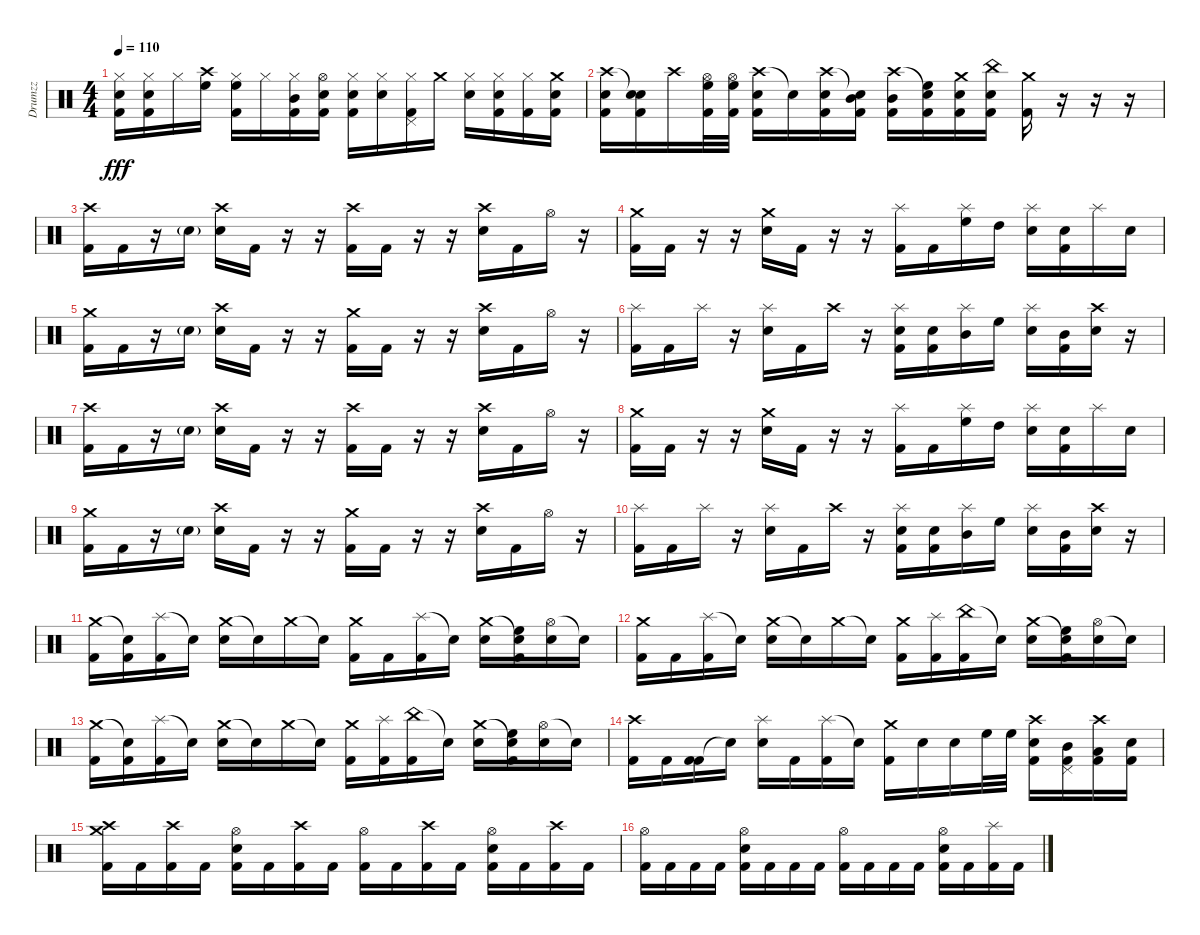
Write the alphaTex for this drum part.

\track ("Drumzz" "Drumzz") {instrument percussion}
\staff {score}
\articulation defaults
\ts (4 4)
\tempo 110
\clef neutral
\ks c
("Hi-Hat (closed)" "Snare (hit) 2" "Kick (hit) 2").16{dy fff} ("Hi-Hat (closed)" "Snare (hit) 2" "Kick (hit) 2").16 "Hi-Hat (closed)".16 ("Crash high (hit)" "High Floor Tom (hit)").16 ("Hi-Hat (closed)" "High Floor Tom (hit)" "Kick (hit) 2").16 "Hi-Hat (closed)".16 ("Hi-Hat (closed)" "Mid Tom (hit)" "Kick (hit) 2").16 ("Hi-Hat (open)" "Snare (hit) 2" "Kick (hit) 2").16 ("Hi-Hat (closed)" "Snare (hit) 2" "Kick (hit) 2").16 ("Hi-Hat (closed)" "Snare (hit) 2").16 ("Hi-Hat (closed)" "Pedal Hi-Hat (hit)" "Kick (hit) 2").16 "Crash medium (hit)".16 ("Hi-Hat (closed)" "Snare (hit) 2").16 ("Hi-Hat (closed)" "Snare (hit) 2" "Kick (hit) 2").16 ("Hi-Hat (closed)" "Kick (hit) 2").16 ("Crash medium (hit)" "Snare (hit) 2" "Kick (hit) 2").16 |
("Crash high (hit)" "Snare (hit) 2" "Kick (hit) 2").16 ("Snare (hit)"{t} "Snare (hit) 2" "Kick (hit) 2").16 "Crash high (hit)".16 ("Hi-Hat (open)" "High Floor Tom (hit)" "Kick (hit) 2").32 ("Hi-Hat (open)" "High Floor Tom (hit)" "Kick (hit) 2").32 ("Crash high (hit)" "Snare (hit) 2" "Kick (hit) 2").16 "Snare (hit)"{t}.16 ("Crash high (hit)" "Snare (hit) 2" "Kick (hit) 2").16 ("Snare (hit)"{t} "Mid Tom (hit)" "Kick (hit) 2").16 ("Crash high (hit)" "Mid Tom (hit)" "Kick (hit) 2").16 ("Snare (hit)"{t} "High Floor Tom (hit)" "Kick (hit) 2").16 ("Crash medium (hit)" "Snare (hit) 2" "Kick (hit) 2").16 ("China (hit)" "Snare (hit) 2" "Kick (hit) 2").16 ("Crash medium (hit)" "Kick (hit) 2").16 r.16 r.16 r.16 |
("Crash high (hit)" "Kick (hit) 2").16{volume 12} "Kick (hit) 2".16 r.16 "Snare (hit) 2"{g}.16 ("Crash high (hit)" "Snare (hit) 2").16 "Kick (hit) 2".16 r.16 r.16 ("Crash high (hit)" "Kick (hit) 2").16 "Kick (hit) 2".16 r.16 r.16 ("Crash high (hit)" "Snare (hit) 2").16 "Kick (hit) 2".16 "Hi-Hat (open)".16 r.16 |
("Crash medium (hit)" "Kick (hit) 2").16 "Kick (hit) 2".16 r.16 r.16 ("Crash medium (hit)" "Snare (hit) 2").16 "Kick (hit) 2".16 r.16 r.16 ("Splash (hit)" "Kick (hit) 2").16 "Kick (hit) 2".16 ("Splash (hit)" "High Floor Tom (hit)").16 "High Tom (hit)".16 ("Splash (hit)" "Snare (hit) 2").16 ("Snare (hit) 2" "Kick (hit) 2").16 "Splash (hit)".16 "Snare (hit) 2".16 |
("Crash medium (hit)" "Kick (hit) 2").16 "Kick (hit) 2".16 r.16 "Snare (hit) 2"{g}.16 ("Crash high (hit)" "Snare (hit) 2").16 "Kick (hit) 2".16 r.16 r.16 ("Crash medium (hit)" "Kick (hit) 2").16 "Kick (hit) 2".16 r.16 r.16 ("Crash high (hit)" "Snare (hit) 2").16 "Kick (hit) 2".16 "Hi-Hat (open)".16 r.16 |
("Splash (hit)" "Kick (hit) 2").16 "Kick (hit) 2".16 "Splash (hit)".16 r.16 ("Splash (hit)" "Snare (hit) 2").16 "Kick (hit) 2".16 "Crash high (hit)".16 r.16 ("Splash (hit)" "Snare (hit) 2" "Kick (hit) 2").16 ("Snare (hit) 2" "Kick (hit) 2").16 ("Splash (hit)" "Mid Tom (hit)").16 "High Floor Tom (hit)".16 ("Splash (hit)" "Snare (hit) 2").16 ("Mid Tom (hit)" "Kick (hit) 2").16 ("Crash high (hit)" "Snare (hit) 2").16 r.16 |
("Crash high (hit)" "Kick (hit) 2").16 "Kick (hit) 2".16 r.16 "Snare (hit) 2"{g}.16 ("Crash high (hit)" "Snare (hit) 2").16 "Kick (hit) 2".16 r.16 r.16 ("Crash high (hit)" "Kick (hit) 2").16 "Kick (hit) 2".16 r.16 r.16 ("Crash high (hit)" "Snare (hit) 2").16 "Kick (hit) 2".16 "Hi-Hat (open)".16 r.16 |
("Crash medium (hit)" "Kick (hit) 2").16 "Kick (hit) 2".16 r.16 r.16 ("Crash medium (hit)" "Snare (hit) 2").16 "Kick (hit) 2".16 r.16 r.16 ("Splash (hit)" "Kick (hit) 2").16 "Kick (hit) 2".16 ("Splash (hit)" "High Floor Tom (hit)").16 "High Tom (hit)".16 ("Splash (hit)" "Snare (hit) 2").16 ("Snare (hit) 2" "Kick (hit) 2").16 "Splash (hit)".16 "Snare (hit) 2".16 |
("Crash medium (hit)" "Kick (hit) 2").16 "Kick (hit) 2".16 r.16 "Snare (hit) 2"{g}.16 ("Crash high (hit)" "Snare (hit) 2").16 "Kick (hit) 2".16 r.16 r.16 ("Crash medium (hit)" "Kick (hit) 2").16 "Kick (hit) 2".16 r.16 r.16 ("Crash high (hit)" "Snare (hit) 2").16 "Kick (hit) 2".16 "Hi-Hat (open)".16 r.16 |
("Splash (hit)" "Kick (hit) 2").16 "Kick (hit) 2".16 "Splash (hit)".16 r.16 ("Splash (hit)" "Snare (hit) 2").16 "Kick (hit) 2".16 "Crash high (hit)".16 r.16 ("Splash (hit)" "Snare (hit) 2" "Kick (hit) 2").16 ("Snare (hit) 2" "Kick (hit) 2").16 ("Splash (hit)" "Mid Tom (hit)").16 "High Floor Tom (hit)".16 ("Splash (hit)" "Snare (hit) 2").16 ("Mid Tom (hit)" "Kick (hit) 2").16 ("Crash high (hit)" "Snare (hit) 2").16 r.16 |
("Crash medium (hit)" "Kick (hit) 2").16 ("Snare (hit)"{t} "Kick (hit) 2").16 ("Splash (hit)" "Kick (hit) 2").16 "Snare (hit)"{t}.16 ("Crash medium (hit)" "Snare (hit) 2").16 "Snare (hit)"{t}.16 "Crash medium (hit)".16 "Snare (hit)"{t}.16 ("Crash medium (hit)" "Kick (hit) 2").16 "Kick (hit) 2".16 ("Splash (hit)" "Kick (hit) 2").16 "Snare (hit)"{t}.16 ("Crash medium (hit)" "Snare (hit) 2").16 ("Snare (hit)"{t} "High Floor Tom (hit)" "Kick (hit) 2").16 ("Hi-Hat (open)" "Snare (hit) 2").16 "Snare (hit)"{t}.16 |
("Crash medium (hit)" "Kick (hit) 2").16 "Kick (hit) 2".16 ("Splash (hit)" "Kick (hit) 2").16 "Snare (hit)"{t}.16 ("Crash medium (hit)" "Snare (hit) 2").16 "Snare (hit)"{t}.16 "Crash medium (hit)".16 "Snare (hit)"{t}.16 ("Crash medium (hit)" "Kick (hit) 2").16 ("Splash (hit)" "Kick (hit) 2").16 ("China (hit)" "Kick (hit) 2").16 "Snare (hit)"{t}.16 ("Crash medium (hit)" "Snare (hit) 2").16 ("Snare (hit)"{t} "High Floor Tom (hit)" "Kick (hit) 2").16 ("Hi-Hat (open)" "Snare (hit) 2").16 "Snare (hit)"{t}.16 |
("Crash medium (hit)" "Kick (hit) 2").16 ("Snare (hit)"{t} "Kick (hit) 2").16 ("Splash (hit)" "Kick (hit) 2").16 "Snare (hit)"{t}.16 ("Crash medium (hit)" "Snare (hit) 2").16 "Snare (hit)"{t}.16 "Crash medium (hit)".16 "Snare (hit)"{t}.16 ("Crash medium (hit)" "Kick (hit) 2").16 ("Splash (hit)" "Kick (hit) 2").16 ("China (hit)" "Kick (hit) 2").16 "Snare (hit)"{t}.16 ("Crash medium (hit)" "Snare (hit) 2").16 ("Snare (hit)"{t} "High Floor Tom (hit)" "Kick (hit) 2").16 ("Hi-Hat (open)" "Snare (hit) 2").16 "Snare (hit)"{t}.16 |
("Crash high (hit)" "Kick (hit) 2").16 "Kick (hit) 2".16 ("Kick (hit) 2" "Kick (hit) 2").16 "Snare (hit)"{t}.16 ("Splash (hit)" "Snare (hit) 2").16 "Kick (hit) 2".16 ("Splash (hit)" "Kick (hit) 2").16 "Snare (hit)"{t}.16 ("Crash medium (hit)" "Kick (hit) 2").16 "Snare (hit) 2".16 "Snare (hit) 2".16 "High Floor Tom (hit)".32 "High Floor Tom (hit)".32 ("Crash high (hit)" "Snare (hit) 2" "Kick (hit) 2").16 ("Pedal Hi-Hat (hit)" "Mid Tom (hit)" "Kick (hit) 2").16 ("Crash high (hit)" "Low Tom (hit)" "Kick (hit) 2").16 ("Snare (hit) 2" "Kick (hit) 2").16 |
("Crash high (hit)" "Crash medium (hit)" "Kick (hit) 2").16 "Kick (hit) 2".16 ("Crash high (hit)" "Kick (hit) 2").16 "Kick (hit) 2".16 ("Hi-Hat (open)" "Snare (hit) 2" "Kick (hit) 2").16 "Kick (hit) 2".16 ("Crash high (hit)" "Kick (hit) 2").16 "Kick (hit) 2".16 ("Hi-Hat (open)" "Kick (hit) 2").16 "Kick (hit) 2".16 ("Crash high (hit)" "Kick (hit) 2").16 "Kick (hit) 2".16 ("Hi-Hat (open)" "Snare (hit) 2" "Kick (hit) 2").16 "Kick (hit) 2".16 ("Crash high (hit)" "Kick (hit) 2").16 "Kick (hit) 2".16 |
("Hi-Hat (open)" "Kick (hit) 2").16 "Kick (hit) 2".16 "Kick (hit) 2".16 "Kick (hit) 2".16 ("Hi-Hat (open)" "Snare (hit) 2" "Kick (hit) 2").16 "Kick (hit) 2".16 "Kick (hit) 2".16 "Kick (hit) 2".16 ("Hi-Hat (open)" "Kick (hit) 2").16 "Kick (hit) 2".16 "Kick (hit) 2".16 "Kick (hit) 2".16 ("Hi-Hat (open)" "Snare (hit) 2" "Kick (hit) 2").16 "Kick (hit) 2".16 ("Splash (hit)" "Kick (hit) 2").16 "Kick (hit) 2".16
